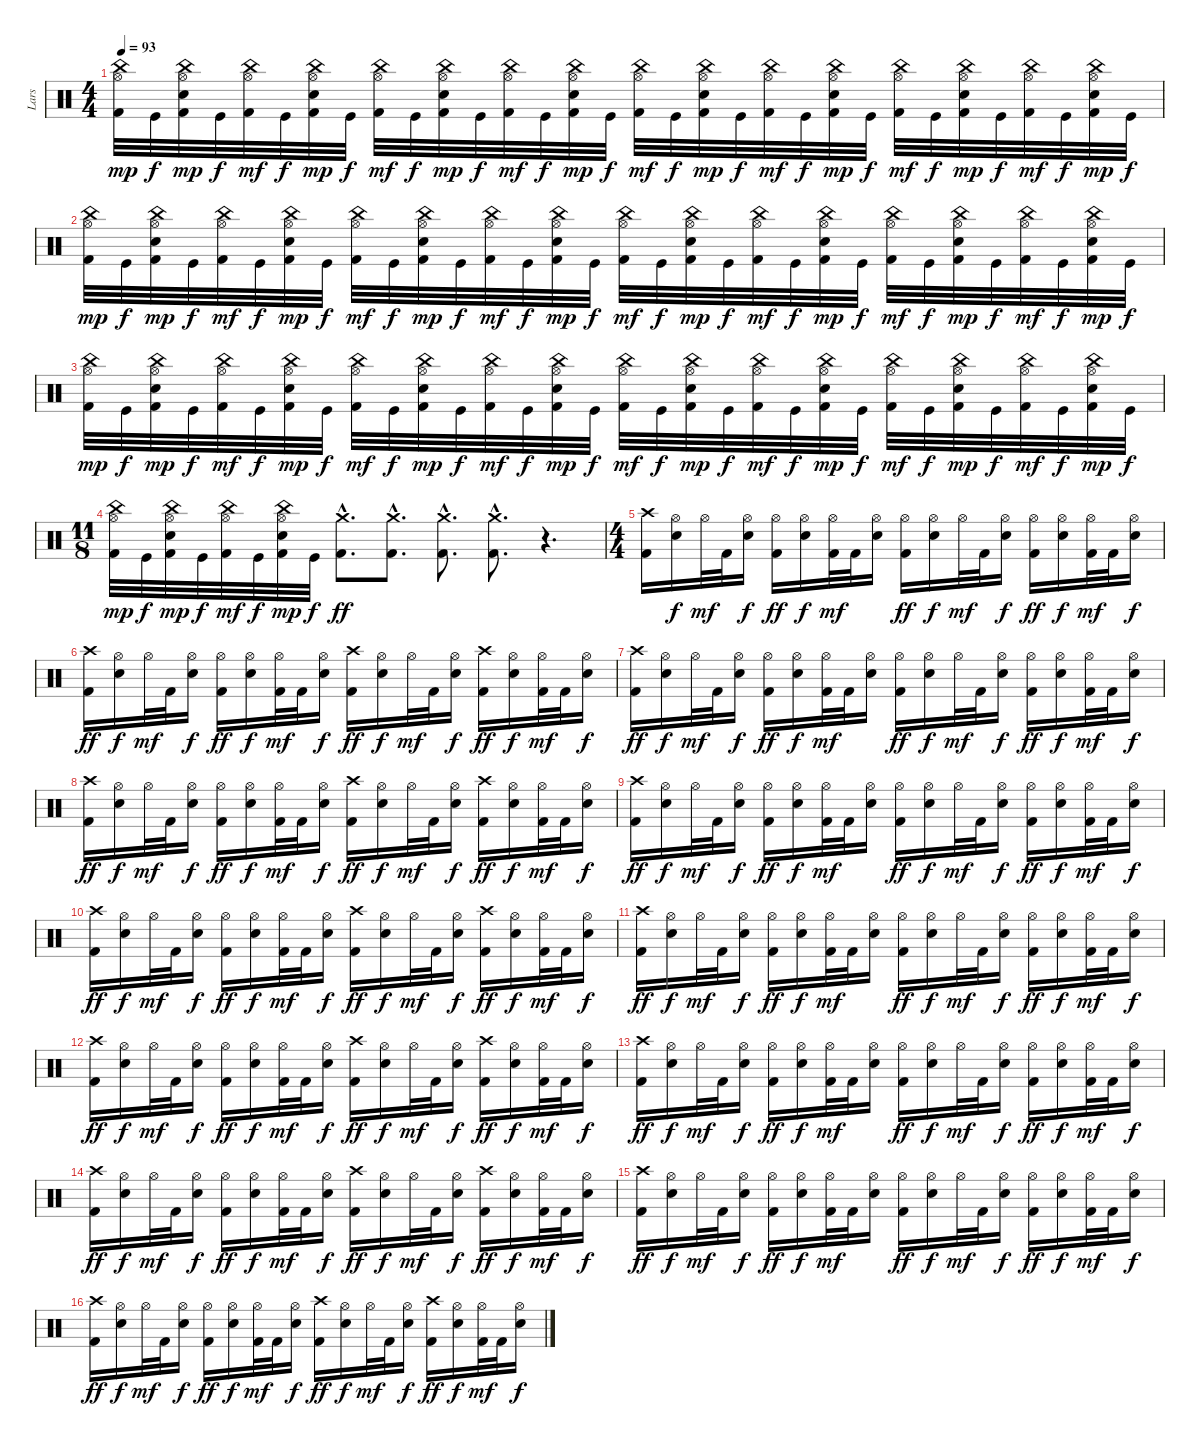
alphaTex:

\track ("Lars" "Lars") {instrument percussion}
\staff {score}
\articulation defaults
\ts (4 4)
\tempo 93
\clef neutral
\ks c
("Hi-Hat (open)" "China (hit)" "Kick (hit) 2").32{dy mp} "Kick (hit)".32{dy f} ("Hi-Hat (open)" "China (hit)" "Snare (hit) 2" "Kick (hit) 2").32{dy mp} "Kick (hit)".32{dy f} ("Hi-Hat (open)" "China (hit)" "Kick (hit) 2").32{dy mf} "Kick (hit)".32{dy f} ("Hi-Hat (open)" "China (hit)" "Snare (hit) 2" "Kick (hit) 2").32{dy mp} "Kick (hit)".32{dy f} ("Hi-Hat (open)" "China (hit)" "Kick (hit) 2").32{dy mf} "Kick (hit)".32{dy f} ("Hi-Hat (open)" "China (hit)" "Snare (hit) 2" "Kick (hit) 2").32{dy mp} "Kick (hit)".32{dy f} ("Hi-Hat (open)" "China (hit)" "Kick (hit) 2").32{dy mf} "Kick (hit)".32{dy f} ("Hi-Hat (open)" "China (hit)" "Snare (hit) 2" "Kick (hit) 2").32{dy mp} "Kick (hit)".32{dy f} ("Hi-Hat (open)" "China (hit)" "Kick (hit) 2").32{dy mf} "Kick (hit)".32{dy f} ("Hi-Hat (open)" "China (hit)" "Snare (hit) 2" "Kick (hit) 2").32{dy mp} "Kick (hit)".32{dy f} ("Hi-Hat (open)" "China (hit)" "Kick (hit) 2").32{dy mf} "Kick (hit)".32{dy f} ("Hi-Hat (open)" "China (hit)" "Snare (hit) 2" "Kick (hit) 2").32{dy mp} "Kick (hit)".32{dy f} ("Hi-Hat (open)" "China (hit)" "Kick (hit) 2").32{dy mf} "Kick (hit)".32{dy f} ("Hi-Hat (open)" "China (hit)" "Snare (hit) 2" "Kick (hit) 2").32{dy mp} "Kick (hit)".32{dy f} ("Hi-Hat (open)" "China (hit)" "Kick (hit) 2").32{dy mf} "Kick (hit)".32{dy f} ("Hi-Hat (open)" "China (hit)" "Snare (hit) 2" "Kick (hit) 2").32{dy mp} "Kick (hit)".32{dy f} |
("Hi-Hat (open)" "China (hit)" "Kick (hit) 2").32{dy mp} "Kick (hit)".32{dy f} ("Hi-Hat (open)" "China (hit)" "Snare (hit) 2" "Kick (hit) 2").32{dy mp} "Kick (hit)".32{dy f} ("Hi-Hat (open)" "China (hit)" "Kick (hit) 2").32{dy mf} "Kick (hit)".32{dy f} ("Hi-Hat (open)" "China (hit)" "Snare (hit) 2" "Kick (hit) 2").32{dy mp} "Kick (hit)".32{dy f} ("Hi-Hat (open)" "China (hit)" "Kick (hit) 2").32{dy mf} "Kick (hit)".32{dy f} ("Hi-Hat (open)" "China (hit)" "Snare (hit) 2" "Kick (hit) 2").32{dy mp} "Kick (hit)".32{dy f} ("Hi-Hat (open)" "China (hit)" "Kick (hit) 2").32{dy mf} "Kick (hit)".32{dy f} ("Hi-Hat (open)" "China (hit)" "Snare (hit) 2" "Kick (hit) 2").32{dy mp} "Kick (hit)".32{dy f} ("Hi-Hat (open)" "China (hit)" "Kick (hit) 2").32{dy mf} "Kick (hit)".32{dy f} ("Hi-Hat (open)" "China (hit)" "Snare (hit) 2" "Kick (hit) 2").32{dy mp} "Kick (hit)".32{dy f} ("Hi-Hat (open)" "China (hit)" "Kick (hit) 2").32{dy mf} "Kick (hit)".32{dy f} ("Hi-Hat (open)" "China (hit)" "Snare (hit) 2" "Kick (hit) 2").32{dy mp} "Kick (hit)".32{dy f} ("Hi-Hat (open)" "China (hit)" "Kick (hit) 2").32{dy mf} "Kick (hit)".32{dy f} ("Hi-Hat (open)" "China (hit)" "Snare (hit) 2" "Kick (hit) 2").32{dy mp} "Kick (hit)".32{dy f} ("Hi-Hat (open)" "China (hit)" "Kick (hit) 2").32{dy mf} "Kick (hit)".32{dy f} ("Hi-Hat (open)" "China (hit)" "Snare (hit) 2" "Kick (hit) 2").32{dy mp} "Kick (hit)".32{dy f} |
("Hi-Hat (open)" "China (hit)" "Kick (hit) 2").32{dy mp} "Kick (hit)".32{dy f} ("Hi-Hat (open)" "China (hit)" "Snare (hit) 2" "Kick (hit) 2").32{dy mp} "Kick (hit)".32{dy f} ("Hi-Hat (open)" "China (hit)" "Kick (hit) 2").32{dy mf} "Kick (hit)".32{dy f} ("Hi-Hat (open)" "China (hit)" "Snare (hit) 2" "Kick (hit) 2").32{dy mp} "Kick (hit)".32{dy f} ("Hi-Hat (open)" "China (hit)" "Kick (hit) 2").32{dy mf} "Kick (hit)".32{dy f} ("Hi-Hat (open)" "China (hit)" "Snare (hit) 2" "Kick (hit) 2").32{dy mp} "Kick (hit)".32{dy f} ("Hi-Hat (open)" "China (hit)" "Kick (hit) 2").32{dy mf} "Kick (hit)".32{dy f} ("Hi-Hat (open)" "China (hit)" "Snare (hit) 2" "Kick (hit) 2").32{dy mp} "Kick (hit)".32{dy f} ("Hi-Hat (open)" "China (hit)" "Kick (hit) 2").32{dy mf} "Kick (hit)".32{dy f} ("Hi-Hat (open)" "China (hit)" "Snare (hit) 2" "Kick (hit) 2").32{dy mp} "Kick (hit)".32{dy f} ("Hi-Hat (open)" "China (hit)" "Kick (hit) 2").32{dy mf} "Kick (hit)".32{dy f} ("Hi-Hat (open)" "China (hit)" "Snare (hit) 2" "Kick (hit) 2").32{dy mp} "Kick (hit)".32{dy f} ("Hi-Hat (open)" "China (hit)" "Kick (hit) 2").32{dy mf} "Kick (hit)".32{dy f} ("Hi-Hat (open)" "China (hit)" "Snare (hit) 2" "Kick (hit) 2").32{dy mp} "Kick (hit)".32{dy f} ("Hi-Hat (open)" "China (hit)" "Kick (hit) 2").32{dy mf} "Kick (hit)".32{dy f} ("Hi-Hat (open)" "China (hit)" "Snare (hit) 2" "Kick (hit) 2").32{dy mp} "Kick (hit)".32{dy f} |
\ts (11 8)
("Hi-Hat (open)" "China (hit)" "Kick (hit) 2").32{dy mp} "Kick (hit)".32{dy f} ("Hi-Hat (open)" "China (hit)" "Snare (hit) 2" "Kick (hit) 2").32{dy mp} "Kick (hit)".32{dy f} ("Hi-Hat (open)" "China (hit)" "Kick (hit) 2").32{dy mf} "Kick (hit)".32{dy f} ("Hi-Hat (open)" "China (hit)" "Snare (hit) 2" "Kick (hit) 2").32{dy mp} "Kick (hit)".32{dy f} ("Crash medium (hit)"{hac} "Kick (hit) 2"{hac}).8{d dy ff} ("Crash medium (hit)"{hac} "Kick (hit) 2"{hac}).8{d} ("Crash medium (hit)"{hac} "Kick (hit) 2"{hac}).8{d} ("Crash medium (hit)"{hac} "Kick (hit) 2"{hac}).8{d} r.4{d} |
\ts (4 4)
("Crash high (hit)" "Kick (hit) 2").16 ("Hi-Hat (open)" "Snare (hit) 2").16{dy f} "Hi-Hat (open)".32{dy mf} "Kick (hit) 2".32 ("Hi-Hat (open)" "Snare (hit) 2").16{dy f} ("Hi-Hat (open)" "Kick (hit) 2").16{dy ff} ("Hi-Hat (open)" "Snare (hit) 2").16{dy f} ("Hi-Hat (open)" "Kick (hit) 2").32{dy mf} "Kick (hit) 2".32 ("Hi-Hat (open)" "Snare (hit) 2").16 ("Hi-Hat (open)" "Kick (hit) 2").16{dy ff} ("Hi-Hat (open)" "Snare (hit) 2").16{dy f} "Hi-Hat (open)".32{dy mf} "Kick (hit) 2".32 ("Hi-Hat (open)" "Snare (hit) 2").16{dy f} ("Hi-Hat (open)" "Kick (hit) 2").16{dy ff} ("Hi-Hat (open)" "Snare (hit) 2").16{dy f} ("Hi-Hat (open)" "Kick (hit) 2").32{dy mf} "Kick (hit) 2".32 ("Hi-Hat (open)" "Snare (hit) 2").16{dy f} |
("Crash high (hit)" "Kick (hit) 2").16{dy ff} ("Hi-Hat (open)" "Snare (hit) 2").16{dy f} "Hi-Hat (open)".32{dy mf} "Kick (hit) 2".32 ("Hi-Hat (open)" "Snare (hit) 2").16{dy f} ("Hi-Hat (open)" "Kick (hit) 2").16{dy ff} ("Hi-Hat (open)" "Snare (hit) 2").16{dy f} ("Hi-Hat (open)" "Kick (hit) 2").32{dy mf} "Kick (hit) 2".32 ("Hi-Hat (open)" "Snare (hit) 2").16{dy f} ("Crash high (hit)" "Kick (hit) 2").16{dy ff} ("Hi-Hat (open)" "Snare (hit) 2").16{dy f} "Hi-Hat (open)".32{dy mf} "Kick (hit) 2".32 ("Hi-Hat (open)" "Snare (hit) 2").16{dy f} ("Crash high (hit)" "Kick (hit) 2").16{dy ff} ("Hi-Hat (open)" "Snare (hit) 2").16{dy f} ("Hi-Hat (open)" "Kick (hit) 2").32{dy mf} "Kick (hit) 2".32 ("Hi-Hat (open)" "Snare (hit) 2").16{dy f} |
("Crash high (hit)" "Kick (hit) 2").16{dy ff} ("Hi-Hat (open)" "Snare (hit) 2").16{dy f} "Hi-Hat (open)".32{dy mf} "Kick (hit) 2".32 ("Hi-Hat (open)" "Snare (hit) 2").16{dy f} ("Hi-Hat (open)" "Kick (hit) 2").16{dy ff} ("Hi-Hat (open)" "Snare (hit) 2").16{dy f} ("Hi-Hat (open)" "Kick (hit) 2").32{dy mf} "Kick (hit) 2".32 ("Hi-Hat (open)" "Snare (hit) 2").16 ("Hi-Hat (open)" "Kick (hit) 2").16{dy ff} ("Hi-Hat (open)" "Snare (hit) 2").16{dy f} "Hi-Hat (open)".32{dy mf} "Kick (hit) 2".32 ("Hi-Hat (open)" "Snare (hit) 2").16{dy f} ("Hi-Hat (open)" "Kick (hit) 2").16{dy ff} ("Hi-Hat (open)" "Snare (hit) 2").16{dy f} ("Hi-Hat (open)" "Kick (hit) 2").32{dy mf} "Kick (hit) 2".32 ("Hi-Hat (open)" "Snare (hit) 2").16{dy f} |
("Crash high (hit)" "Kick (hit) 2").16{dy ff} ("Hi-Hat (open)" "Snare (hit) 2").16{dy f} "Hi-Hat (open)".32{dy mf} "Kick (hit) 2".32 ("Hi-Hat (open)" "Snare (hit) 2").16{dy f} ("Hi-Hat (open)" "Kick (hit) 2").16{dy ff} ("Hi-Hat (open)" "Snare (hit) 2").16{dy f} ("Hi-Hat (open)" "Kick (hit) 2").32{dy mf} "Kick (hit) 2".32 ("Hi-Hat (open)" "Snare (hit) 2").16{dy f} ("Crash high (hit)" "Kick (hit) 2").16{dy ff} ("Hi-Hat (open)" "Snare (hit) 2").16{dy f} "Hi-Hat (open)".32{dy mf} "Kick (hit) 2".32 ("Hi-Hat (open)" "Snare (hit) 2").16{dy f} ("Crash high (hit)" "Kick (hit) 2").16{dy ff} ("Hi-Hat (open)" "Snare (hit) 2").16{dy f} ("Hi-Hat (open)" "Kick (hit) 2").32{dy mf} "Kick (hit) 2".32 ("Hi-Hat (open)" "Snare (hit) 2").16{dy f} |
("Crash high (hit)" "Kick (hit) 2").16{dy ff} ("Hi-Hat (open)" "Snare (hit) 2").16{dy f} "Hi-Hat (open)".32{dy mf} "Kick (hit) 2".32 ("Hi-Hat (open)" "Snare (hit) 2").16{dy f} ("Hi-Hat (open)" "Kick (hit) 2").16{dy ff} ("Hi-Hat (open)" "Snare (hit) 2").16{dy f} ("Hi-Hat (open)" "Kick (hit) 2").32{dy mf} "Kick (hit) 2".32 ("Hi-Hat (open)" "Snare (hit) 2").16 ("Hi-Hat (open)" "Kick (hit) 2").16{dy ff} ("Hi-Hat (open)" "Snare (hit) 2").16{dy f} "Hi-Hat (open)".32{dy mf} "Kick (hit) 2".32 ("Hi-Hat (open)" "Snare (hit) 2").16{dy f} ("Hi-Hat (open)" "Kick (hit) 2").16{dy ff} ("Hi-Hat (open)" "Snare (hit) 2").16{dy f} ("Hi-Hat (open)" "Kick (hit) 2").32{dy mf} "Kick (hit) 2".32 ("Hi-Hat (open)" "Snare (hit) 2").16{dy f} |
("Crash high (hit)" "Kick (hit) 2").16{dy ff} ("Hi-Hat (open)" "Snare (hit) 2").16{dy f} "Hi-Hat (open)".32{dy mf} "Kick (hit) 2".32 ("Hi-Hat (open)" "Snare (hit) 2").16{dy f} ("Hi-Hat (open)" "Kick (hit) 2").16{dy ff} ("Hi-Hat (open)" "Snare (hit) 2").16{dy f} ("Hi-Hat (open)" "Kick (hit) 2").32{dy mf} "Kick (hit) 2".32 ("Hi-Hat (open)" "Snare (hit) 2").16{dy f} ("Crash high (hit)" "Kick (hit) 2").16{dy ff} ("Hi-Hat (open)" "Snare (hit) 2").16{dy f} "Hi-Hat (open)".32{dy mf} "Kick (hit) 2".32 ("Hi-Hat (open)" "Snare (hit) 2").16{dy f} ("Crash high (hit)" "Kick (hit) 2").16{dy ff} ("Hi-Hat (open)" "Snare (hit) 2").16{dy f} ("Hi-Hat (open)" "Kick (hit) 2").32{dy mf} "Kick (hit) 2".32 ("Hi-Hat (open)" "Snare (hit) 2").16{dy f} |
("Crash high (hit)" "Kick (hit) 2").16{dy ff} ("Hi-Hat (open)" "Snare (hit) 2").16{dy f} "Hi-Hat (open)".32{dy mf} "Kick (hit) 2".32 ("Hi-Hat (open)" "Snare (hit) 2").16{dy f} ("Hi-Hat (open)" "Kick (hit) 2").16{dy ff} ("Hi-Hat (open)" "Snare (hit) 2").16{dy f} ("Hi-Hat (open)" "Kick (hit) 2").32{dy mf} "Kick (hit) 2".32 ("Hi-Hat (open)" "Snare (hit) 2").16 ("Hi-Hat (open)" "Kick (hit) 2").16{dy ff} ("Hi-Hat (open)" "Snare (hit) 2").16{dy f} "Hi-Hat (open)".32{dy mf} "Kick (hit) 2".32 ("Hi-Hat (open)" "Snare (hit) 2").16{dy f} ("Hi-Hat (open)" "Kick (hit) 2").16{dy ff} ("Hi-Hat (open)" "Snare (hit) 2").16{dy f} ("Hi-Hat (open)" "Kick (hit) 2").32{dy mf} "Kick (hit) 2".32 ("Hi-Hat (open)" "Snare (hit) 2").16{dy f} |
("Crash high (hit)" "Kick (hit) 2").16{dy ff} ("Hi-Hat (open)" "Snare (hit) 2").16{dy f} "Hi-Hat (open)".32{dy mf} "Kick (hit) 2".32 ("Hi-Hat (open)" "Snare (hit) 2").16{dy f} ("Hi-Hat (open)" "Kick (hit) 2").16{dy ff} ("Hi-Hat (open)" "Snare (hit) 2").16{dy f} ("Hi-Hat (open)" "Kick (hit) 2").32{dy mf} "Kick (hit) 2".32 ("Hi-Hat (open)" "Snare (hit) 2").16{dy f} ("Crash high (hit)" "Kick (hit) 2").16{dy ff} ("Hi-Hat (open)" "Snare (hit) 2").16{dy f} "Hi-Hat (open)".32{dy mf} "Kick (hit) 2".32 ("Hi-Hat (open)" "Snare (hit) 2").16{dy f} ("Crash high (hit)" "Kick (hit) 2").16{dy ff} ("Hi-Hat (open)" "Snare (hit) 2").16{dy f} ("Hi-Hat (open)" "Kick (hit) 2").32{dy mf} "Kick (hit) 2".32 ("Hi-Hat (open)" "Snare (hit) 2").16{dy f} |
("Crash high (hit)" "Kick (hit) 2").16{dy ff} ("Hi-Hat (open)" "Snare (hit) 2").16{dy f} "Hi-Hat (open)".32{dy mf} "Kick (hit) 2".32 ("Hi-Hat (open)" "Snare (hit) 2").16{dy f} ("Hi-Hat (open)" "Kick (hit) 2").16{dy ff} ("Hi-Hat (open)" "Snare (hit) 2").16{dy f} ("Hi-Hat (open)" "Kick (hit) 2").32{dy mf} "Kick (hit) 2".32 ("Hi-Hat (open)" "Snare (hit) 2").16 ("Hi-Hat (open)" "Kick (hit) 2").16{dy ff} ("Hi-Hat (open)" "Snare (hit) 2").16{dy f} "Hi-Hat (open)".32{dy mf} "Kick (hit) 2".32 ("Hi-Hat (open)" "Snare (hit) 2").16{dy f} ("Hi-Hat (open)" "Kick (hit) 2").16{dy ff} ("Hi-Hat (open)" "Snare (hit) 2").16{dy f} ("Hi-Hat (open)" "Kick (hit) 2").32{dy mf} "Kick (hit) 2".32 ("Hi-Hat (open)" "Snare (hit) 2").16{dy f} |
("Crash high (hit)" "Kick (hit) 2").16{dy ff} ("Hi-Hat (open)" "Snare (hit) 2").16{dy f} "Hi-Hat (open)".32{dy mf} "Kick (hit) 2".32 ("Hi-Hat (open)" "Snare (hit) 2").16{dy f} ("Hi-Hat (open)" "Kick (hit) 2").16{dy ff} ("Hi-Hat (open)" "Snare (hit) 2").16{dy f} ("Hi-Hat (open)" "Kick (hit) 2").32{dy mf} "Kick (hit) 2".32 ("Hi-Hat (open)" "Snare (hit) 2").16{dy f} ("Crash high (hit)" "Kick (hit) 2").16{dy ff} ("Hi-Hat (open)" "Snare (hit) 2").16{dy f} "Hi-Hat (open)".32{dy mf} "Kick (hit) 2".32 ("Hi-Hat (open)" "Snare (hit) 2").16{dy f} ("Crash high (hit)" "Kick (hit) 2").16{dy ff} ("Hi-Hat (open)" "Snare (hit) 2").16{dy f} ("Hi-Hat (open)" "Kick (hit) 2").32{dy mf} "Kick (hit) 2".32 ("Hi-Hat (open)" "Snare (hit) 2").16{dy f} |
("Crash high (hit)" "Kick (hit) 2").16{dy ff} ("Hi-Hat (open)" "Snare (hit) 2").16{dy f} "Hi-Hat (open)".32{dy mf} "Kick (hit) 2".32 ("Hi-Hat (open)" "Snare (hit) 2").16{dy f} ("Hi-Hat (open)" "Kick (hit) 2").16{dy ff} ("Hi-Hat (open)" "Snare (hit) 2").16{dy f} ("Hi-Hat (open)" "Kick (hit) 2").32{dy mf} "Kick (hit) 2".32 ("Hi-Hat (open)" "Snare (hit) 2").16 ("Hi-Hat (open)" "Kick (hit) 2").16{dy ff} ("Hi-Hat (open)" "Snare (hit) 2").16{dy f} "Hi-Hat (open)".32{dy mf} "Kick (hit) 2".32 ("Hi-Hat (open)" "Snare (hit) 2").16{dy f} ("Hi-Hat (open)" "Kick (hit) 2").16{dy ff} ("Hi-Hat (open)" "Snare (hit) 2").16{dy f} ("Hi-Hat (open)" "Kick (hit) 2").32{dy mf} "Kick (hit) 2".32 ("Hi-Hat (open)" "Snare (hit) 2").16{dy f} |
("Crash high (hit)" "Kick (hit) 2").16{dy ff} ("Hi-Hat (open)" "Snare (hit) 2").16{dy f} "Hi-Hat (open)".32{dy mf} "Kick (hit) 2".32 ("Hi-Hat (open)" "Snare (hit) 2").16{dy f} ("Hi-Hat (open)" "Kick (hit) 2").16{dy ff} ("Hi-Hat (open)" "Snare (hit) 2").16{dy f} ("Hi-Hat (open)" "Kick (hit) 2").32{dy mf} "Kick (hit) 2".32 ("Hi-Hat (open)" "Snare (hit) 2").16{dy f} ("Crash high (hit)" "Kick (hit) 2").16{dy ff} ("Hi-Hat (open)" "Snare (hit) 2").16{dy f} "Hi-Hat (open)".32{dy mf} "Kick (hit) 2".32 ("Hi-Hat (open)" "Snare (hit) 2").16{dy f} ("Crash high (hit)" "Kick (hit) 2").16{dy ff} ("Hi-Hat (open)" "Snare (hit) 2").16{dy f} ("Hi-Hat (open)" "Kick (hit) 2").32{dy mf} "Kick (hit) 2".32 ("Hi-Hat (open)" "Snare (hit) 2").16{dy f}
